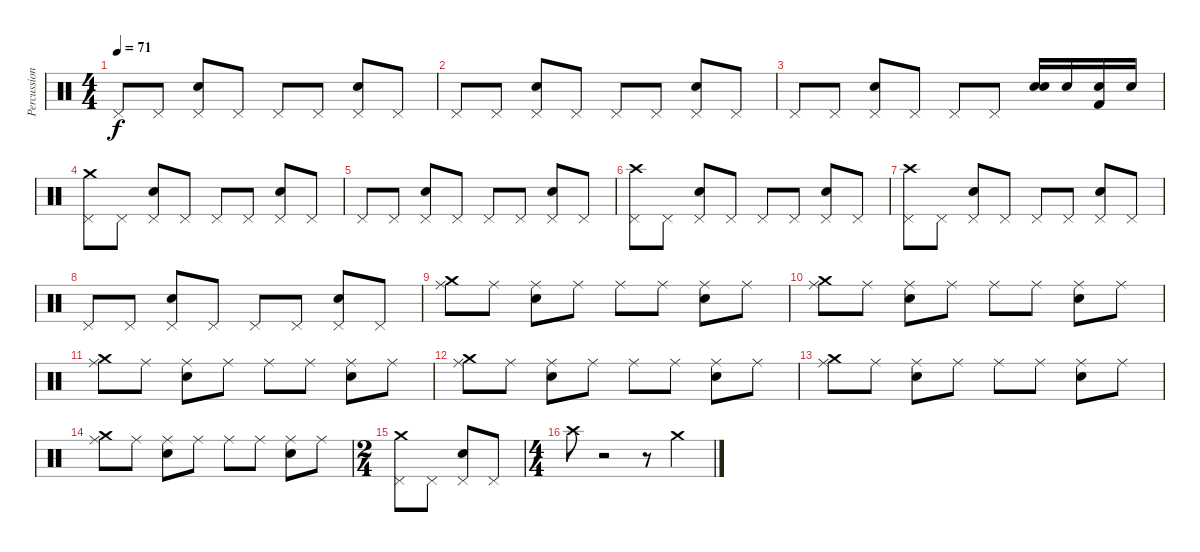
\track ("Percussion" "Percussion") {instrument percussion}
\staff {score}
\articulation defaults
\ts (4 4)
\tempo 71
\clef neutral
\ks c "Pedal Hi-Hat (hit)".8{dy f} "Pedal Hi-Hat (hit)".8
("Pedal Hi-Hat (hit)" "Electric Snare (hit)").8 "Pedal Hi-Hat (hit)".8 "Pedal Hi-Hat (hit)".8 "Pedal Hi-Hat (hit)".8 ("Pedal Hi-Hat (hit)" "Electric Snare (hit)").8 "Pedal Hi-Hat (hit)".8 |
"Pedal Hi-Hat (hit)".8 "Pedal Hi-Hat (hit)".8 ("Pedal Hi-Hat (hit)" "Electric Snare (hit)").8 "Pedal Hi-Hat (hit)".8 "Pedal Hi-Hat (hit)".8 "Pedal Hi-Hat (hit)".8 ("Pedal Hi-Hat (hit)" "Electric Snare (hit)").8 "Pedal Hi-Hat (hit)".8 |
"Pedal Hi-Hat (hit)".8 "Pedal Hi-Hat (hit)".8 ("Pedal Hi-Hat (hit)" "Electric Snare (hit)").8 "Pedal Hi-Hat (hit)".8 "Pedal Hi-Hat (hit)".8 "Pedal Hi-Hat (hit)".8 ("Electric Snare (hit)" "Electric Snare (hit)").16 "Snare (hit) 2".16 ("Kick (hit) 2" "Electric Snare (hit)").16 "Snare (hit) 2".16 |
("Pedal Hi-Hat (hit)" "Crash medium (hit)").8 "Pedal Hi-Hat (hit)".8 ("Pedal Hi-Hat (hit)" "Electric Snare (hit)").8 "Pedal Hi-Hat (hit)".8 "Pedal Hi-Hat (hit)".8 "Pedal Hi-Hat (hit)".8 ("Pedal Hi-Hat (hit)" "Electric Snare (hit)").8 "Pedal Hi-Hat (hit)".8 |
"Pedal Hi-Hat (hit)".8 "Pedal Hi-Hat (hit)".8 ("Pedal Hi-Hat (hit)" "Electric Snare (hit)").8 "Pedal Hi-Hat (hit)".8 "Pedal Hi-Hat (hit)".8 "Pedal Hi-Hat (hit)".8 ("Pedal Hi-Hat (hit)" "Electric Snare (hit)").8 "Pedal Hi-Hat (hit)".8 |
("Pedal Hi-Hat (hit)" "Crash high (hit)").8 "Pedal Hi-Hat (hit)".8 ("Pedal Hi-Hat (hit)" "Electric Snare (hit)").8 "Pedal Hi-Hat (hit)".8 "Pedal Hi-Hat (hit)".8 "Pedal Hi-Hat (hit)".8 ("Pedal Hi-Hat (hit)" "Electric Snare (hit)").8 "Pedal Hi-Hat (hit)".8 |
("Pedal Hi-Hat (hit)" "Crash high (hit)").8 "Pedal Hi-Hat (hit)".8 ("Pedal Hi-Hat (hit)" "Electric Snare (hit)").8 "Pedal Hi-Hat (hit)".8 "Pedal Hi-Hat (hit)".8 "Pedal Hi-Hat (hit)".8 ("Pedal Hi-Hat (hit)" "Electric Snare (hit)").8 "Pedal Hi-Hat (hit)".8 |
"Pedal Hi-Hat (hit)".8 "Pedal Hi-Hat (hit)".8 ("Pedal Hi-Hat (hit)" "Electric Snare (hit)").8 "Pedal Hi-Hat (hit)".8 "Pedal Hi-Hat (hit)".8 "Pedal Hi-Hat (hit)".8 ("Pedal Hi-Hat (hit)" "Electric Snare (hit)").8 "Pedal Hi-Hat (hit)".8 |
("Ride (middle)" "Crash medium (hit)").8 "Ride (middle)".8 ("Ride (middle)" "Electric Snare (hit)").8 "Ride (middle)".8 "Ride (middle)".8 "Ride (middle)".8 ("Ride (middle)" "Electric Snare (hit)").8 "Ride (middle)".8 |
("Ride (middle)" "Crash medium (hit)").8 "Ride (middle)".8 ("Ride (middle)" "Electric Snare (hit)").8 "Ride (middle)".8 "Ride (middle)".8 "Ride (middle)".8 ("Ride (middle)" "Electric Snare (hit)").8 "Ride (middle)".8 |
("Ride (middle)" "Crash medium (hit)").8 "Ride (middle)".8 ("Ride (middle)" "Electric Snare (hit)").8 "Ride (middle)".8 "Ride (middle)".8 "Ride (middle)".8 ("Ride (middle)" "Electric Snare (hit)").8 "Ride (middle)".8 |
("Ride (middle)" "Crash medium (hit)").8 "Ride (middle)".8 ("Ride (middle)" "Electric Snare (hit)").8 "Ride (middle)".8 "Ride (middle)".8 "Ride (middle)".8 ("Ride (middle)" "Electric Snare (hit)").8 "Ride (middle)".8 |
("Ride (middle)" "Crash medium (hit)").8 "Ride (middle)".8 ("Ride (middle)" "Electric Snare (hit)").8 "Ride (middle)".8 "Ride (middle)".8 "Ride (middle)".8 ("Ride (middle)" "Electric Snare (hit)").8 "Ride (middle)".8 |
("Ride (middle)" "Crash medium (hit)").8 "Ride (middle)".8 ("Ride (middle)" "Electric Snare (hit)").8 "Ride (middle)".8 "Ride (middle)".8 "Ride (middle)".8 ("Ride (middle)" "Electric Snare (hit)").8 "Ride (middle)".8 |
\ts (2 4)
("Pedal Hi-Hat (hit)" "Crash medium (hit)").8 "Pedal Hi-Hat (hit)".8 ("Pedal Hi-Hat (hit)" "Electric Snare (hit)").8 "Pedal Hi-Hat (hit)".8 |
\ts (4 4)
"Crash high (hit)".8 r.2 r.8 "Crash medium (hit)".4
